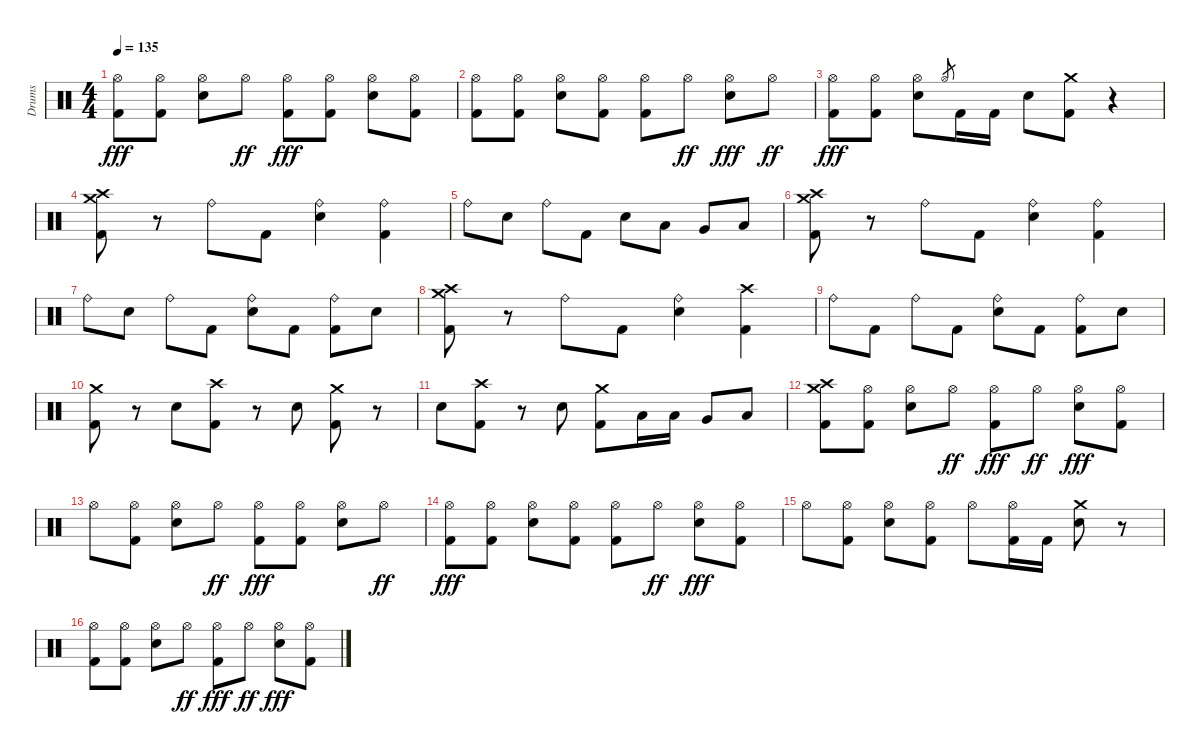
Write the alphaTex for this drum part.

\track ("Drums" "Drums") {instrument percussion}
\staff {score}
\articulation defaults
\ts (4 4)
\tempo 135
\clef neutral
\ks c
("Hi-Hat (open)" "Kick (hit) 2").8{dy fff} ("Hi-Hat (open)" "Kick (hit) 2").8 ("Hi-Hat (open)" "Snare (hit) 2").8 "Hi-Hat (open)".8{dy ff} ("Hi-Hat (open)" "Kick (hit) 2").8{dy fff} ("Hi-Hat (open)" "Kick (hit) 2").8 ("Hi-Hat (open)" "Snare (hit) 2").8 ("Hi-Hat (open)" "Kick (hit) 2").8 |
("Hi-Hat (open)" "Kick (hit) 2").8 ("Hi-Hat (open)" "Kick (hit) 2").8 ("Hi-Hat (open)" "Snare (hit) 2").8 ("Hi-Hat (open)" "Kick (hit) 2").8 ("Hi-Hat (open)" "Kick (hit) 2").8 "Hi-Hat (open)".8{dy ff} ("Hi-Hat (open)" "Snare (hit) 2").8{dy fff} "Hi-Hat (open)".8{dy ff} |
("Hi-Hat (open)" "Kick (hit) 2").8{dy fff} ("Hi-Hat (open)" "Kick (hit) 2").8 ("Hi-Hat (open)" "Snare (hit) 2").8 "Hi-Hat (open)".8{gr} "Kick (hit) 2".16 "Kick (hit) 2".16 "Snare (hit) 2".8 ("Kick (hit) 2" "Crash medium (hit)").8 r.4 |
("Kick (hit) 2" "Crash high (hit)" "Crash medium (hit)").8 r.8 "Ride (bell)".8 "Kick (hit) 2".8 ("Ride (bell)" "Snare (hit) 2").4 ("Ride (bell)" "Kick (hit) 2").4 |
"Ride (bell)".8 "Snare (hit) 2".8 "Ride (bell)".8 "Kick (hit) 2".8 "Snare (hit) 2".8 "Low Tom (hit)".8 "Very Low Tom (hit)".8 "Low Floor Tom (hit)".8 |
("Kick (hit) 2" "Crash high (hit)" "Crash medium (hit)").8 r.8 "Ride (bell)".8 "Kick (hit) 2".8 ("Ride (bell)" "Snare (hit) 2").4 ("Ride (bell)" "Kick (hit) 2").4 |
"Ride (bell)".8 "Snare (hit) 2".8 "Ride (bell)".8 "Kick (hit) 2".8 ("Ride (bell)" "Snare (hit) 2").8 "Kick (hit) 2".8 ("Ride (bell)" "Kick (hit) 2").8 "Snare (hit) 2".8 |
("Kick (hit) 2" "Crash high (hit)" "Crash medium (hit)").8 r.8 "Ride (bell)".8 "Kick (hit) 2".8 ("Ride (bell)" "Snare (hit) 2").4 ("Crash high (hit)" "Kick (hit) 2").4 |
"Ride (bell)".8 "Kick (hit) 2".8 "Ride (bell)".8 "Kick (hit) 2".8 ("Ride (bell)" "Snare (hit) 2").8 "Kick (hit) 2".8 ("Ride (bell)" "Kick (hit) 2").8 "Snare (hit) 2".8 |
("Kick (hit) 2" "Crash medium (hit)").8 r.8 "Snare (hit) 2".8 ("Crash high (hit)" "Kick (hit) 2").8 r.8 "Snare (hit) 2".8 ("Crash medium (hit)" "Kick (hit) 2").8 r.8 |
"Snare (hit) 2".8 ("Crash high (hit)" "Kick (hit) 2").8 r.8 "Snare (hit) 2".8 ("Crash medium (hit)" "Kick (hit) 2").8 "Low Tom (hit)".16 "Low Tom (hit)".16 "Very Low Tom (hit)".8 "Low Floor Tom (hit)".8 |
("Crash high (hit)" "Crash medium (hit)" "Kick (hit) 2").8 ("Hi-Hat (open)" "Kick (hit) 2").8 ("Hi-Hat (open)" "Snare (hit) 2").8 "Hi-Hat (open)".8{dy ff} ("Hi-Hat (open)" "Kick (hit) 2").8{dy fff} "Hi-Hat (open)".8{dy ff} ("Hi-Hat (open)" "Snare (hit) 2").8{dy fff} ("Hi-Hat (open)" "Kick (hit) 2").8 |
"Hi-Hat (open)".8 ("Hi-Hat (open)" "Kick (hit) 2").8 ("Hi-Hat (open)" "Snare (hit) 2").8 "Hi-Hat (open)".8{dy ff} ("Hi-Hat (open)" "Kick (hit) 2").8{dy fff} ("Hi-Hat (open)" "Kick (hit) 2").8 ("Hi-Hat (open)" "Snare (hit) 2").8 "Hi-Hat (open)".8{dy ff} |
("Hi-Hat (open)" "Kick (hit) 2").8{dy fff} ("Hi-Hat (open)" "Kick (hit) 2").8 ("Hi-Hat (open)" "Snare (hit) 2").8 ("Hi-Hat (open)" "Kick (hit) 2").8 ("Hi-Hat (open)" "Kick (hit) 2").8 "Hi-Hat (open)".8{dy ff} ("Hi-Hat (open)" "Snare (hit) 2").8{dy fff} ("Hi-Hat (open)" "Kick (hit) 2").8 |
"Hi-Hat (open)".8 ("Hi-Hat (open)" "Kick (hit) 2").8 ("Hi-Hat (open)" "Snare (hit) 2").8 ("Hi-Hat (open)" "Kick (hit) 2").8 "Hi-Hat (open)".8 ("Hi-Hat (open)" "Kick (hit) 2").16 "Kick (hit) 2".16 ("Crash medium (hit)" "Snare (hit) 2").8 r.8 |
("Hi-Hat (open)" "Kick (hit) 2").8 ("Hi-Hat (open)" "Kick (hit) 2").8 ("Hi-Hat (open)" "Snare (hit) 2").8 "Hi-Hat (open)".8{dy ff} ("Hi-Hat (open)" "Kick (hit) 2").8{dy fff} "Hi-Hat (open)".8{dy ff} ("Hi-Hat (open)" "Snare (hit) 2").8{dy fff} ("Hi-Hat (open)" "Kick (hit) 2").8
